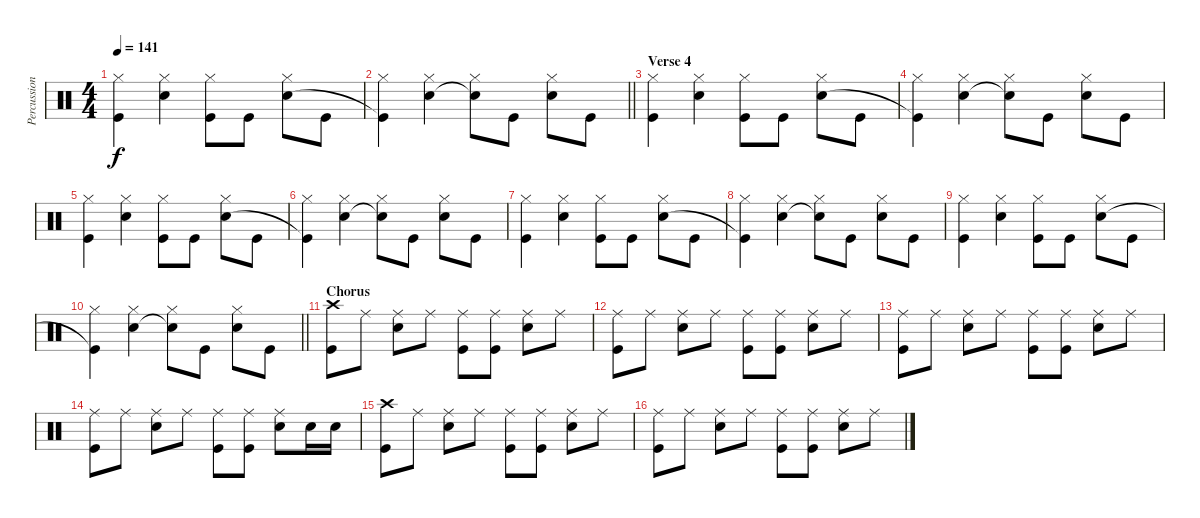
\track ("Percussion" "Percussion") {instrument percussion}
\staff {score}
\articulation defaults
\ts (4 4)
\tempo 141
\clef neutral
\ks c
("Kick (hit)" "Hi-Hat (closed)").4{dy f} ("Snare (hit) 2" "Hi-Hat (closed)").4 ("Hi-Hat (closed)" "Kick (hit)").8 "Kick (hit)".8 ("Hi-Hat (closed)" "Snare (hit) 2").8 "Kick (hit)".8 |
\barLineRight lightlight
("Hi-Hat (closed)" "Kick (hit)"{t}).4 ("Hi-Hat (closed)" "Snare (hit) 2").4 ("Hi-Hat (closed)" "Snare (hit) 2"{t}).8 "Kick (hit)".8 ("Hi-Hat (closed)" "Snare (hit) 2").8 "Kick (hit)".8 |
\section ("" "Verse 4")
("Kick (hit)" "Hi-Hat (closed)").4 ("Snare (hit) 2" "Hi-Hat (closed)").4 ("Hi-Hat (closed)" "Kick (hit)").8 "Kick (hit)".8 ("Hi-Hat (closed)" "Snare (hit) 2").8 "Kick (hit)".8 |
("Hi-Hat (closed)" "Kick (hit)"{t}).4 ("Hi-Hat (closed)" "Snare (hit) 2").4 ("Hi-Hat (closed)" "Snare (hit) 2"{t}).8 "Kick (hit)".8 ("Hi-Hat (closed)" "Snare (hit) 2").8 "Kick (hit)".8 |
("Kick (hit)" "Hi-Hat (closed)").4 ("Snare (hit) 2" "Hi-Hat (closed)").4 ("Hi-Hat (closed)" "Kick (hit)").8 "Kick (hit)".8 ("Hi-Hat (closed)" "Snare (hit) 2").8 "Kick (hit)".8 |
("Hi-Hat (closed)" "Kick (hit)"{t}).4 ("Hi-Hat (closed)" "Snare (hit) 2").4 ("Hi-Hat (closed)" "Snare (hit) 2"{t}).8 "Kick (hit)".8 ("Hi-Hat (closed)" "Snare (hit) 2").8 "Kick (hit)".8 |
("Kick (hit)" "Hi-Hat (closed)").4 ("Snare (hit) 2" "Hi-Hat (closed)").4 ("Hi-Hat (closed)" "Kick (hit)").8 "Kick (hit)".8 ("Hi-Hat (closed)" "Snare (hit) 2").8 "Kick (hit)".8 |
("Hi-Hat (closed)" "Kick (hit)"{t}).4 ("Hi-Hat (closed)" "Snare (hit) 2").4 ("Hi-Hat (closed)" "Snare (hit) 2"{t}).8 "Kick (hit)".8 ("Hi-Hat (closed)" "Snare (hit) 2").8 "Kick (hit)".8 |
("Kick (hit)" "Hi-Hat (closed)").4 ("Snare (hit) 2" "Hi-Hat (closed)").4 ("Hi-Hat (closed)" "Kick (hit)").8 "Kick (hit)".8 ("Hi-Hat (closed)" "Snare (hit) 2").8 "Kick (hit)".8 |
\barLineRight lightlight
("Hi-Hat (closed)" "Kick (hit)"{t}).4 ("Hi-Hat (closed)" "Snare (hit) 2").4 ("Hi-Hat (closed)" "Snare (hit) 2"{t}).8 "Kick (hit)".8 ("Hi-Hat (closed)" "Snare (hit) 2").8 "Kick (hit)".8 |
\section ("" "Chorus")
("Crash high (hit)" "Kick (hit)").8 "Ride (middle)".8 ("Ride (middle)" "Snare (hit) 2").8 "Ride (middle)".8 ("Ride (middle)" "Kick (hit)").8 ("Ride (middle)" "Kick (hit)").8 ("Ride (middle)" "Snare (hit) 2").8 "Ride (middle)".8 |
("Ride (middle)" "Kick (hit)").8 "Ride (middle)".8 ("Ride (middle)" "Snare (hit) 2").8 "Ride (middle)".8 ("Ride (middle)" "Kick (hit)").8 ("Ride (middle)" "Kick (hit)").8 ("Ride (middle)" "Snare (hit) 2").8 "Ride (middle)".8 |
("Ride (middle)" "Kick (hit)").8 "Ride (middle)".8 ("Ride (middle)" "Snare (hit) 2").8 "Ride (middle)".8 ("Ride (middle)" "Kick (hit)").8 ("Ride (middle)" "Kick (hit)").8 ("Ride (middle)" "Snare (hit) 2").8 "Ride (middle)".8 |
("Ride (middle)" "Kick (hit)").8 "Ride (middle)".8 ("Ride (middle)" "Snare (hit) 2").8 "Ride (middle)".8 ("Ride (middle)" "Kick (hit)").8 ("Ride (middle)" "Kick (hit)").8 ("Ride (middle)" "Snare (hit) 2").8 "Snare (hit) 2".16 "Snare (hit) 2".16 |
("Crash high (hit)" "Kick (hit)").8 "Ride (middle)".8 ("Ride (middle)" "Snare (hit) 2").8 "Ride (middle)".8 ("Ride (middle)" "Kick (hit)").8 ("Ride (middle)" "Kick (hit)").8 ("Ride (middle)" "Snare (hit) 2").8 "Ride (middle)".8 |
("Ride (middle)" "Kick (hit)").8 "Ride (middle)".8 ("Ride (middle)" "Snare (hit) 2").8 "Ride (middle)".8 ("Ride (middle)" "Kick (hit)").8 ("Ride (middle)" "Kick (hit)").8 ("Ride (middle)" "Snare (hit) 2").8 "Ride (middle)".8
